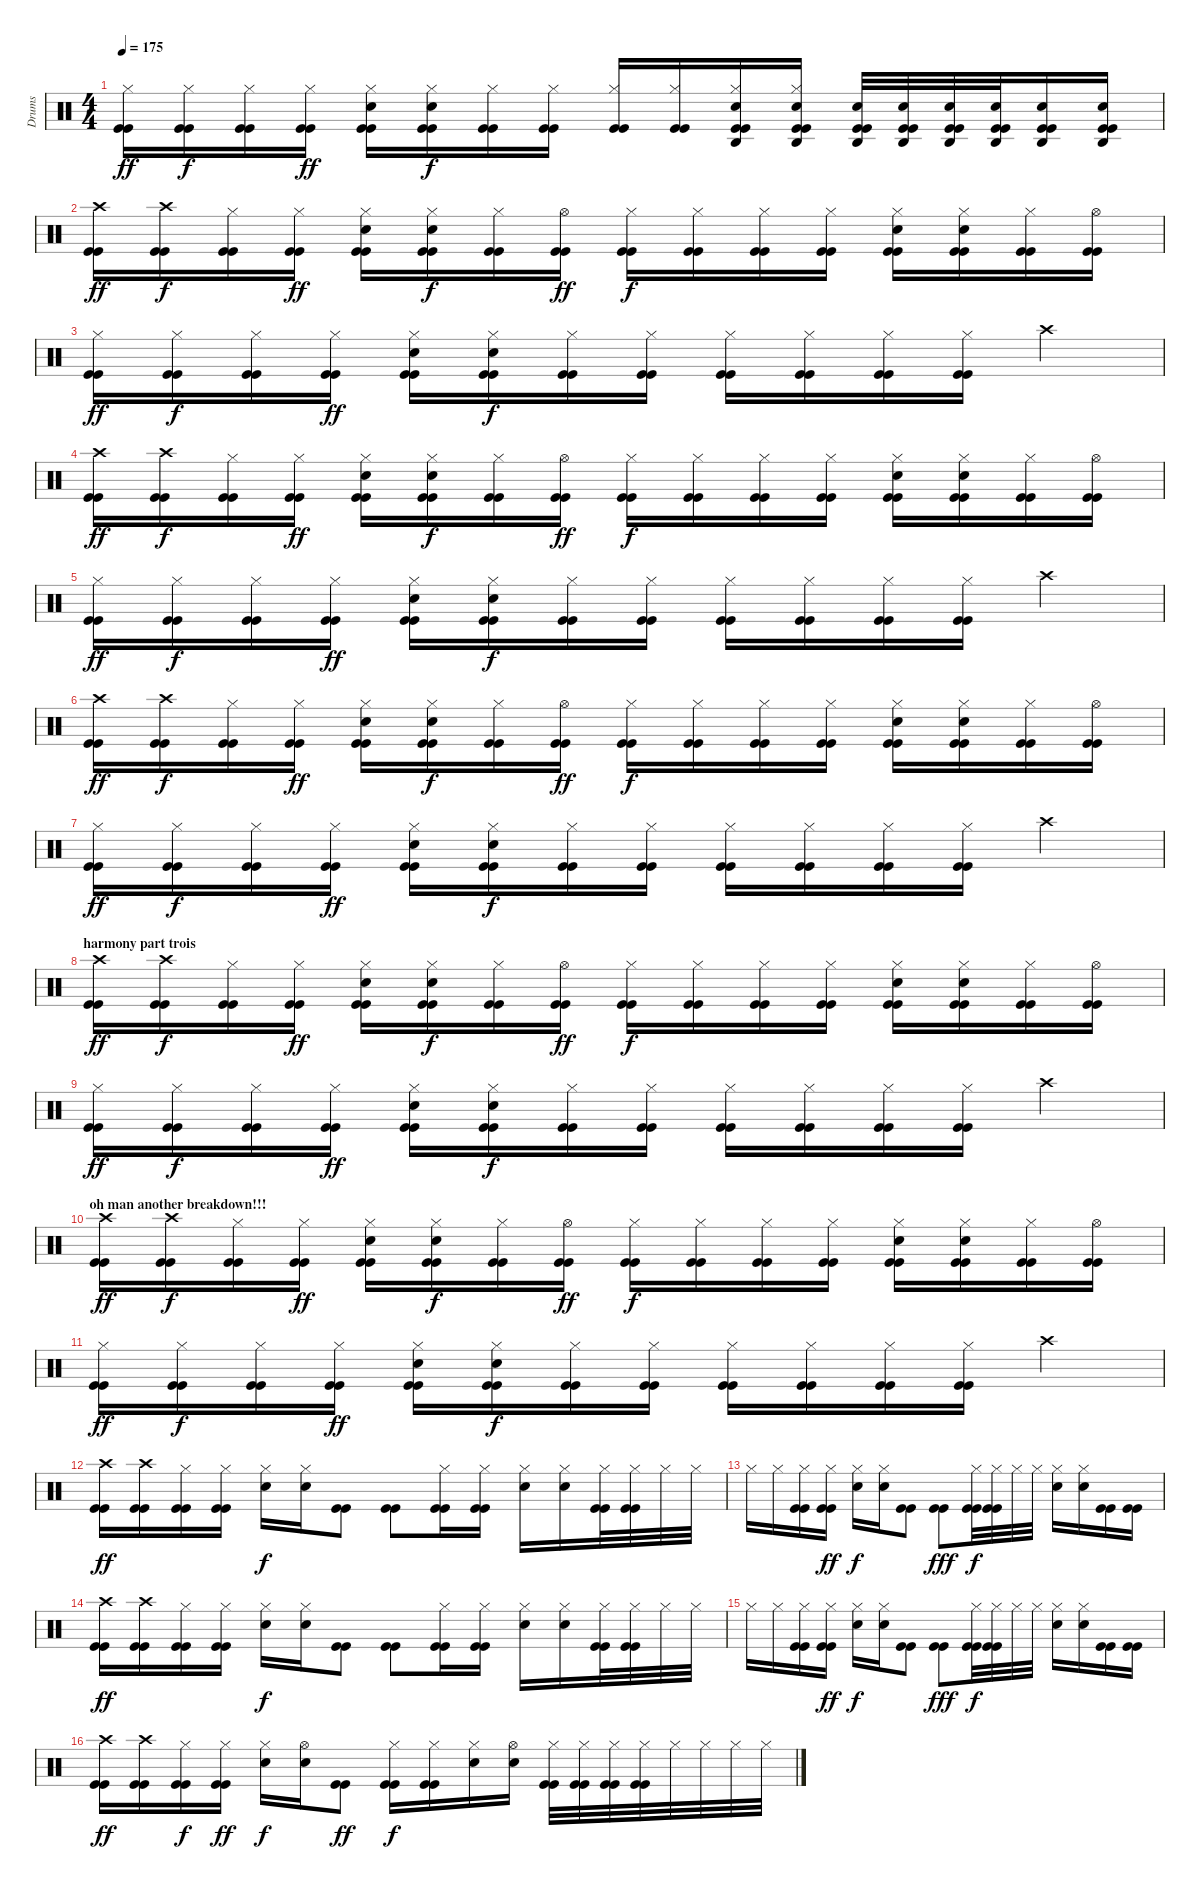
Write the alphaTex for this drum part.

\track ("Drums" "Drums") {instrument percussion}
\staff {score}
\articulation defaults
\ts (4 4)
\tempo 175
\clef neutral
\ks c
("Hi-Hat (closed)" "Kick (hit)" "Kick (hit)").16{dy ff} ("Hi-Hat (closed)" "Kick (hit)" "Kick (hit)").16{dy f} ("Hi-Hat (closed)" "Kick (hit)" "Kick (hit)").16 ("Hi-Hat (closed)" "Kick (hit)" "Kick (hit)").16{dy ff} ("Electric Snare (hit)" "Hi-Hat (closed)" "Kick (hit)" "Kick (hit)").16 ("Electric Snare (hit)" "Hi-Hat (closed)" "Kick (hit)" "Kick (hit)").16{dy f} ("Hi-Hat (closed)" "Kick (hit)" "Kick (hit)").16 ("Hi-Hat (closed)" "Kick (hit)" "Kick (hit)").16 ("Hi-Hat (closed)" "Kick (hit)" "Kick (hit)").16 ("Hi-Hat (closed)" "Kick (hit)" "Kick (hit)").16 ("Agogo high (hit)" "Electric Snare (hit)" "Hi-Hat (closed)" "Kick (hit)" "Kick (hit)").16 ("Agogo high (hit)" "Electric Snare (hit)" "Hi-Hat (closed)" "Kick (hit)" "Kick (hit)").16 ("Agogo high (hit)" "Electric Snare (hit)" "Kick (hit)" "Kick (hit)").32 ("Agogo high (hit)" "Electric Snare (hit)" "Kick (hit)" "Kick (hit)").32 ("Agogo high (hit)" "Electric Snare (hit)" "Kick (hit)" "Kick (hit)").32 ("Agogo high (hit)" "Electric Snare (hit)" "Kick (hit)" "Kick (hit)").32 ("Agogo high (hit)" "Electric Snare (hit)" "Kick (hit)" "Kick (hit)").16 ("Agogo high (hit)" "Electric Snare (hit)" "Kick (hit)" "Kick (hit)").16 |
("Crash high (hit)" "Kick (hit)" "Kick (hit)").16{dy ff} ("Crash high (hit)" "Kick (hit)" "Kick (hit)").16{dy f} ("Hi-Hat (closed)" "Kick (hit)" "Kick (hit)").16 ("Hi-Hat (closed)" "Kick (hit)" "Kick (hit)").16{dy ff} ("Electric Snare (hit)" "Hi-Hat (closed)" "Kick (hit)" "Kick (hit)").16 ("Electric Snare (hit)" "Hi-Hat (closed)" "Kick (hit)" "Kick (hit)").16{dy f} ("Hi-Hat (closed)" "Kick (hit)" "Kick (hit)").16 ("Hi-Hat (open)" "Kick (hit)" "Kick (hit)").16{dy ff} ("Hi-Hat (closed)" "Kick (hit)" "Kick (hit)").16{dy f} ("Hi-Hat (closed)" "Kick (hit)" "Kick (hit)").16 ("Hi-Hat (closed)" "Kick (hit)" "Kick (hit)").16 ("Hi-Hat (closed)" "Kick (hit)" "Kick (hit)").16 ("Electric Snare (hit)" "Hi-Hat (closed)" "Kick (hit)" "Kick (hit)").16 ("Electric Snare (hit)" "Hi-Hat (closed)" "Kick (hit)" "Kick (hit)").16 ("Hi-Hat (closed)" "Kick (hit)" "Kick (hit)").16 ("Hi-Hat (open)" "Kick (hit)" "Kick (hit)").16 |
("Hi-Hat (closed)" "Kick (hit)" "Kick (hit)").16{dy ff} ("Hi-Hat (closed)" "Kick (hit)" "Kick (hit)").16{dy f} ("Hi-Hat (closed)" "Kick (hit)" "Kick (hit)").16 ("Hi-Hat (closed)" "Kick (hit)" "Kick (hit)").16{dy ff} ("Electric Snare (hit)" "Hi-Hat (closed)" "Kick (hit)" "Kick (hit)").16 ("Electric Snare (hit)" "Hi-Hat (closed)" "Kick (hit)" "Kick (hit)").16{dy f} ("Hi-Hat (closed)" "Kick (hit)" "Kick (hit)").16 ("Hi-Hat (closed)" "Kick (hit)" "Kick (hit)").16 ("Hi-Hat (closed)" "Kick (hit)" "Kick (hit)").16 ("Hi-Hat (closed)" "Kick (hit)" "Kick (hit)").16 ("Hi-Hat (closed)" "Kick (hit)" "Kick (hit)").16 ("Hi-Hat (closed)" "Kick (hit)" "Kick (hit)").16 "Crash high (hit)".4 |
("Crash high (hit)" "Kick (hit)" "Kick (hit)").16{dy ff} ("Crash high (hit)" "Kick (hit)" "Kick (hit)").16{dy f} ("Hi-Hat (closed)" "Kick (hit)" "Kick (hit)").16 ("Hi-Hat (closed)" "Kick (hit)" "Kick (hit)").16{dy ff} ("Electric Snare (hit)" "Hi-Hat (closed)" "Kick (hit)" "Kick (hit)").16 ("Electric Snare (hit)" "Hi-Hat (closed)" "Kick (hit)" "Kick (hit)").16{dy f} ("Hi-Hat (closed)" "Kick (hit)" "Kick (hit)").16 ("Hi-Hat (open)" "Kick (hit)" "Kick (hit)").16{dy ff} ("Hi-Hat (closed)" "Kick (hit)" "Kick (hit)").16{dy f} ("Hi-Hat (closed)" "Kick (hit)" "Kick (hit)").16 ("Hi-Hat (closed)" "Kick (hit)" "Kick (hit)").16 ("Hi-Hat (closed)" "Kick (hit)" "Kick (hit)").16 ("Electric Snare (hit)" "Hi-Hat (closed)" "Kick (hit)" "Kick (hit)").16 ("Electric Snare (hit)" "Hi-Hat (closed)" "Kick (hit)" "Kick (hit)").16 ("Hi-Hat (closed)" "Kick (hit)" "Kick (hit)").16 ("Hi-Hat (open)" "Kick (hit)" "Kick (hit)").16 |
("Hi-Hat (closed)" "Kick (hit)" "Kick (hit)").16{dy ff} ("Hi-Hat (closed)" "Kick (hit)" "Kick (hit)").16{dy f} ("Hi-Hat (closed)" "Kick (hit)" "Kick (hit)").16 ("Hi-Hat (closed)" "Kick (hit)" "Kick (hit)").16{dy ff} ("Electric Snare (hit)" "Hi-Hat (closed)" "Kick (hit)" "Kick (hit)").16 ("Electric Snare (hit)" "Hi-Hat (closed)" "Kick (hit)" "Kick (hit)").16{dy f} ("Hi-Hat (closed)" "Kick (hit)" "Kick (hit)").16 ("Hi-Hat (closed)" "Kick (hit)" "Kick (hit)").16 ("Hi-Hat (closed)" "Kick (hit)" "Kick (hit)").16 ("Hi-Hat (closed)" "Kick (hit)" "Kick (hit)").16 ("Hi-Hat (closed)" "Kick (hit)" "Kick (hit)").16 ("Hi-Hat (closed)" "Kick (hit)" "Kick (hit)").16 "Crash high (hit)".4 |
("Crash high (hit)" "Kick (hit)" "Kick (hit)").16{dy ff} ("Crash high (hit)" "Kick (hit)" "Kick (hit)").16{dy f} ("Hi-Hat (closed)" "Kick (hit)" "Kick (hit)").16 ("Hi-Hat (closed)" "Kick (hit)" "Kick (hit)").16{dy ff} ("Electric Snare (hit)" "Hi-Hat (closed)" "Kick (hit)" "Kick (hit)").16 ("Electric Snare (hit)" "Hi-Hat (closed)" "Kick (hit)" "Kick (hit)").16{dy f} ("Hi-Hat (closed)" "Kick (hit)" "Kick (hit)").16 ("Hi-Hat (open)" "Kick (hit)" "Kick (hit)").16{dy ff} ("Hi-Hat (closed)" "Kick (hit)" "Kick (hit)").16{dy f} ("Hi-Hat (closed)" "Kick (hit)" "Kick (hit)").16 ("Hi-Hat (closed)" "Kick (hit)" "Kick (hit)").16 ("Hi-Hat (closed)" "Kick (hit)" "Kick (hit)").16 ("Electric Snare (hit)" "Hi-Hat (closed)" "Kick (hit)" "Kick (hit)").16 ("Electric Snare (hit)" "Hi-Hat (closed)" "Kick (hit)" "Kick (hit)").16 ("Hi-Hat (closed)" "Kick (hit)" "Kick (hit)").16 ("Hi-Hat (open)" "Kick (hit)" "Kick (hit)").16 |
("Hi-Hat (closed)" "Kick (hit)" "Kick (hit)").16{dy ff} ("Hi-Hat (closed)" "Kick (hit)" "Kick (hit)").16{dy f} ("Hi-Hat (closed)" "Kick (hit)" "Kick (hit)").16 ("Hi-Hat (closed)" "Kick (hit)" "Kick (hit)").16{dy ff} ("Electric Snare (hit)" "Hi-Hat (closed)" "Kick (hit)" "Kick (hit)").16 ("Electric Snare (hit)" "Hi-Hat (closed)" "Kick (hit)" "Kick (hit)").16{dy f} ("Hi-Hat (closed)" "Kick (hit)" "Kick (hit)").16 ("Hi-Hat (closed)" "Kick (hit)" "Kick (hit)").16 ("Hi-Hat (closed)" "Kick (hit)" "Kick (hit)").16 ("Hi-Hat (closed)" "Kick (hit)" "Kick (hit)").16 ("Hi-Hat (closed)" "Kick (hit)" "Kick (hit)").16 ("Hi-Hat (closed)" "Kick (hit)" "Kick (hit)").16 "Crash high (hit)".4 |
\section ("" "harmony part trois")
("Crash high (hit)" "Kick (hit)" "Kick (hit)").16{dy ff} ("Crash high (hit)" "Kick (hit)" "Kick (hit)").16{dy f} ("Hi-Hat (closed)" "Kick (hit)" "Kick (hit)").16 ("Hi-Hat (closed)" "Kick (hit)" "Kick (hit)").16{dy ff} ("Electric Snare (hit)" "Hi-Hat (closed)" "Kick (hit)" "Kick (hit)").16 ("Electric Snare (hit)" "Hi-Hat (closed)" "Kick (hit)" "Kick (hit)").16{dy f} ("Hi-Hat (closed)" "Kick (hit)" "Kick (hit)").16 ("Hi-Hat (open)" "Kick (hit)" "Kick (hit)").16{dy ff} ("Hi-Hat (closed)" "Kick (hit)" "Kick (hit)").16{dy f} ("Hi-Hat (closed)" "Kick (hit)" "Kick (hit)").16 ("Hi-Hat (closed)" "Kick (hit)" "Kick (hit)").16 ("Hi-Hat (closed)" "Kick (hit)" "Kick (hit)").16 ("Electric Snare (hit)" "Hi-Hat (closed)" "Kick (hit)" "Kick (hit)").16 ("Electric Snare (hit)" "Hi-Hat (closed)" "Kick (hit)" "Kick (hit)").16 ("Hi-Hat (closed)" "Kick (hit)" "Kick (hit)").16 ("Hi-Hat (open)" "Kick (hit)" "Kick (hit)").16 |
("Hi-Hat (closed)" "Kick (hit)" "Kick (hit)").16{dy ff} ("Hi-Hat (closed)" "Kick (hit)" "Kick (hit)").16{dy f} ("Hi-Hat (closed)" "Kick (hit)" "Kick (hit)").16 ("Hi-Hat (closed)" "Kick (hit)" "Kick (hit)").16{dy ff} ("Electric Snare (hit)" "Hi-Hat (closed)" "Kick (hit)" "Kick (hit)").16 ("Electric Snare (hit)" "Hi-Hat (closed)" "Kick (hit)" "Kick (hit)").16{dy f} ("Hi-Hat (closed)" "Kick (hit)" "Kick (hit)").16 ("Hi-Hat (closed)" "Kick (hit)" "Kick (hit)").16 ("Hi-Hat (closed)" "Kick (hit)" "Kick (hit)").16 ("Hi-Hat (closed)" "Kick (hit)" "Kick (hit)").16 ("Hi-Hat (closed)" "Kick (hit)" "Kick (hit)").16 ("Hi-Hat (closed)" "Kick (hit)" "Kick (hit)").16 "Crash high (hit)".4 |
\section ("" "oh man another breakdown!!!")
("Crash high (hit)" "Kick (hit)" "Kick (hit)").16{dy ff} ("Crash high (hit)" "Kick (hit)" "Kick (hit)").16{dy f} ("Hi-Hat (closed)" "Kick (hit)" "Kick (hit)").16 ("Hi-Hat (closed)" "Kick (hit)" "Kick (hit)").16{dy ff} ("Electric Snare (hit)" "Hi-Hat (closed)" "Kick (hit)" "Kick (hit)").16 ("Electric Snare (hit)" "Hi-Hat (closed)" "Kick (hit)" "Kick (hit)").16{dy f} ("Hi-Hat (closed)" "Kick (hit)" "Kick (hit)").16 ("Hi-Hat (open)" "Kick (hit)" "Kick (hit)").16{dy ff} ("Hi-Hat (closed)" "Kick (hit)" "Kick (hit)").16{dy f} ("Hi-Hat (closed)" "Kick (hit)" "Kick (hit)").16 ("Hi-Hat (closed)" "Kick (hit)" "Kick (hit)").16 ("Hi-Hat (closed)" "Kick (hit)" "Kick (hit)").16 ("Electric Snare (hit)" "Hi-Hat (closed)" "Kick (hit)" "Kick (hit)").16 ("Electric Snare (hit)" "Hi-Hat (closed)" "Kick (hit)" "Kick (hit)").16 ("Hi-Hat (closed)" "Kick (hit)" "Kick (hit)").16 ("Hi-Hat (open)" "Kick (hit)" "Kick (hit)").16 |
("Hi-Hat (closed)" "Kick (hit)" "Kick (hit)").16{dy ff} ("Hi-Hat (closed)" "Kick (hit)" "Kick (hit)").16{dy f} ("Hi-Hat (closed)" "Kick (hit)" "Kick (hit)").16 ("Hi-Hat (closed)" "Kick (hit)" "Kick (hit)").16{dy ff} ("Electric Snare (hit)" "Hi-Hat (closed)" "Kick (hit)" "Kick (hit)").16 ("Electric Snare (hit)" "Hi-Hat (closed)" "Kick (hit)" "Kick (hit)").16{dy f} ("Hi-Hat (closed)" "Kick (hit)" "Kick (hit)").16 ("Hi-Hat (closed)" "Kick (hit)" "Kick (hit)").16 ("Hi-Hat (closed)" "Kick (hit)" "Kick (hit)").16 ("Hi-Hat (closed)" "Kick (hit)" "Kick (hit)").16 ("Hi-Hat (closed)" "Kick (hit)" "Kick (hit)").16 ("Hi-Hat (closed)" "Kick (hit)" "Kick (hit)").16 "Crash high (hit)".4 |
("Crash high (hit)" "Kick (hit)" "Kick (hit)").16{dy ff} ("Crash high (hit)" "Kick (hit)" "Kick (hit)").16 ("Hi-Hat (closed)" "Kick (hit)" "Kick (hit)").16 ("Hi-Hat (closed)" "Kick (hit)" "Kick (hit)").16 ("Electric Snare (hit)" "Hi-Hat (closed)").16{dy f} ("Electric Snare (hit)" "Hi-Hat (closed)").16 ("Kick (hit)" "Kick (hit)").8 ("Kick (hit)" "Kick (hit)").8 ("Hi-Hat (closed)" "Kick (hit)" "Kick (hit)").16 ("Hi-Hat (closed)" "Kick (hit)" "Kick (hit)").16 ("Electric Snare (hit)" "Hi-Hat (closed)").16 ("Electric Snare (hit)" "Hi-Hat (closed)").16 ("Hi-Hat (closed)" "Kick (hit)" "Kick (hit)").32 ("Hi-Hat (closed)" "Kick (hit)" "Kick (hit)").32 "Hi-Hat (closed)".32 "Hi-Hat (closed)".32 |
"Hi-Hat (closed)".16 "Hi-Hat (closed)".16 ("Hi-Hat (closed)" "Kick (hit)" "Kick (hit)").16 ("Hi-Hat (closed)" "Kick (hit)" "Kick (hit)").16{dy ff} ("Electric Snare (hit)" "Hi-Hat (closed)").16{dy f} ("Electric Snare (hit)" "Hi-Hat (closed)").16 ("Kick (hit)" "Kick (hit)").8 ("Kick (hit)" "Kick (hit)").8{dy fff} ("Hi-Hat (closed)" "Kick (hit)" "Kick (hit)").32{dy f} ("Hi-Hat (closed)" "Kick (hit)" "Kick (hit)").32 "Hi-Hat (closed)".32 "Hi-Hat (closed)".32 ("Electric Snare (hit)" "Hi-Hat (closed)").16 ("Electric Snare (hit)" "Hi-Hat (closed)").16 ("Kick (hit)" "Kick (hit)").16 ("Kick (hit)" "Kick (hit)").16 |
("Crash high (hit)" "Kick (hit)" "Kick (hit)").16{dy ff} ("Crash high (hit)" "Kick (hit)" "Kick (hit)").16 ("Hi-Hat (closed)" "Kick (hit)" "Kick (hit)").16 ("Hi-Hat (closed)" "Kick (hit)" "Kick (hit)").16 ("Electric Snare (hit)" "Hi-Hat (closed)").16{dy f} ("Electric Snare (hit)" "Hi-Hat (closed)").16 ("Kick (hit)" "Kick (hit)").8 ("Kick (hit)" "Kick (hit)").8 ("Hi-Hat (closed)" "Kick (hit)" "Kick (hit)").16 ("Hi-Hat (closed)" "Kick (hit)" "Kick (hit)").16 ("Electric Snare (hit)" "Hi-Hat (closed)").16 ("Electric Snare (hit)" "Hi-Hat (closed)").16 ("Hi-Hat (closed)" "Kick (hit)" "Kick (hit)").32 ("Hi-Hat (closed)" "Kick (hit)" "Kick (hit)").32 "Hi-Hat (closed)".32 "Hi-Hat (closed)".32 |
"Hi-Hat (closed)".16 "Hi-Hat (closed)".16 ("Hi-Hat (closed)" "Kick (hit)" "Kick (hit)").16 ("Hi-Hat (closed)" "Kick (hit)" "Kick (hit)").16{dy ff} ("Electric Snare (hit)" "Hi-Hat (closed)").16{dy f} ("Electric Snare (hit)" "Hi-Hat (closed)").16 ("Kick (hit)" "Kick (hit)").8 ("Kick (hit)" "Kick (hit)").8{dy fff} ("Hi-Hat (closed)" "Kick (hit)" "Kick (hit)").32{dy f} ("Hi-Hat (closed)" "Kick (hit)" "Kick (hit)").32 "Hi-Hat (closed)".32 "Hi-Hat (closed)".32 ("Electric Snare (hit)" "Hi-Hat (closed)").16 ("Electric Snare (hit)" "Hi-Hat (closed)").16 ("Kick (hit)" "Kick (hit)").16 ("Kick (hit)" "Kick (hit)").16 |
("Crash high (hit)" "Kick (hit)" "Kick (hit)").16{dy ff} ("Crash high (hit)" "Kick (hit)" "Kick (hit)").16 ("Hi-Hat (closed)" "Kick (hit)" "Kick (hit)").16{dy f} ("Hi-Hat (closed)" "Kick (hit)" "Kick (hit)").16{dy ff} ("Electric Snare (hit)" "Hi-Hat (closed)").16{dy f} ("Electric Snare (hit)" "Hi-Hat (open)").16 ("Kick (hit)" "Kick (hit)").8{dy ff} ("Hi-Hat (closed)" "Kick (hit)" "Kick (hit)").16{dy f} ("Hi-Hat (closed)" "Kick (hit)" "Kick (hit)").16 ("Electric Snare (hit)" "Hi-Hat (closed)").16 ("Electric Snare (hit)" "Hi-Hat (open)").16 ("Hi-Hat (closed)" "Kick (hit)" "Kick (hit)").32 ("Hi-Hat (closed)" "Kick (hit)" "Kick (hit)").32 ("Hi-Hat (closed)" "Kick (hit)" "Kick (hit)").32 ("Hi-Hat (closed)" "Kick (hit)" "Kick (hit)").32 "Hi-Hat (closed)".32 "Hi-Hat (closed)".32 "Hi-Hat (closed)".32 "Hi-Hat (closed)".32
